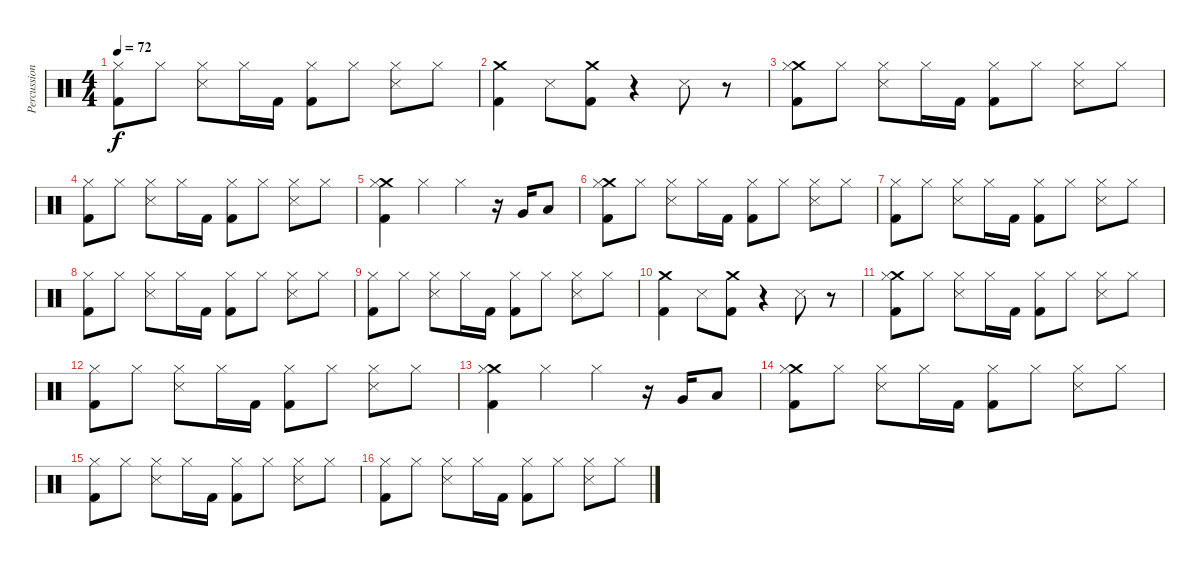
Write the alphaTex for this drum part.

\track ("Percussion" "Percussion") {instrument percussion}
\staff {score}
\articulation defaults
\ts (4 4)
\tempo 72
\clef neutral
\ks c
("Hi-Hat (closed)" "Kick (hit) 2").8{dy f} "Hi-Hat (closed)".8 ("Hi-Hat (closed)" "Metronome (hit)").8 "Hi-Hat (closed)".16 "Kick (hit) 2".16 ("Hi-Hat (closed)" "Kick (hit) 2").8 "Hi-Hat (closed)".8 ("Hi-Hat (closed)" "Metronome (hit)").8 "Hi-Hat (closed)".8 |
("Crash medium (hit)" "Kick (hit) 2").4 "Metronome (hit)".8 ("Crash medium (hit)" "Kick (hit) 2").8 r.4 "Metronome (hit)".8 r.8 |
("Crash medium (hit)" "Hi-Hat (closed)" "Kick (hit) 2").8 "Hi-Hat (closed)".8 ("Hi-Hat (closed)" "Metronome (hit)").8 "Hi-Hat (closed)".16 "Kick (hit) 2".16 ("Hi-Hat (closed)" "Kick (hit) 2").8 "Hi-Hat (closed)".8 ("Hi-Hat (closed)" "Metronome (hit)").8 "Hi-Hat (closed)".8 |
("Hi-Hat (closed)" "Kick (hit) 2").8 "Hi-Hat (closed)".8 ("Hi-Hat (closed)" "Metronome (hit)").8 "Hi-Hat (closed)".16 "Kick (hit) 2".16 ("Hi-Hat (closed)" "Kick (hit) 2").8 "Hi-Hat (closed)".8 ("Hi-Hat (closed)" "Metronome (hit)").8 "Hi-Hat (closed)".8 |
("Crash medium (hit)" "Hi-Hat (closed)" "Kick (hit) 2").4 "Hi-Hat (closed)".4 "Hi-Hat (closed)".4 r.16 "Very Low Tom (hit)".16 "Low Floor Tom (hit)".8 |
("Crash medium (hit)" "Hi-Hat (closed)" "Kick (hit) 2").8 "Hi-Hat (closed)".8 ("Hi-Hat (closed)" "Metronome (hit)").8 "Hi-Hat (closed)".16 "Kick (hit) 2".16 ("Hi-Hat (closed)" "Kick (hit) 2").8 "Hi-Hat (closed)".8 ("Hi-Hat (closed)" "Metronome (hit)").8 "Hi-Hat (closed)".8 |
("Hi-Hat (closed)" "Kick (hit) 2").8 "Hi-Hat (closed)".8 ("Hi-Hat (closed)" "Metronome (hit)").8 "Hi-Hat (closed)".16 "Kick (hit) 2".16 ("Hi-Hat (closed)" "Kick (hit) 2").8 "Hi-Hat (closed)".8 ("Hi-Hat (closed)" "Metronome (hit)").8 "Hi-Hat (closed)".8 |
("Hi-Hat (closed)" "Kick (hit) 2").8 "Hi-Hat (closed)".8 ("Hi-Hat (closed)" "Metronome (hit)").8 "Hi-Hat (closed)".16 "Kick (hit) 2".16 ("Hi-Hat (closed)" "Kick (hit) 2").8 "Hi-Hat (closed)".8 ("Hi-Hat (closed)" "Metronome (hit)").8 "Hi-Hat (closed)".8 |
("Hi-Hat (closed)" "Kick (hit) 2").8 "Hi-Hat (closed)".8 ("Hi-Hat (closed)" "Metronome (hit)").8 "Hi-Hat (closed)".16 "Kick (hit) 2".16 ("Hi-Hat (closed)" "Kick (hit) 2").8 "Hi-Hat (closed)".8 ("Hi-Hat (closed)" "Metronome (hit)").8 "Hi-Hat (closed)".8 |
("Crash medium (hit)" "Kick (hit) 2").4 "Metronome (hit)".8 ("Crash medium (hit)" "Kick (hit) 2").8 r.4 "Metronome (hit)".8 r.8 |
("Crash medium (hit)" "Hi-Hat (closed)" "Kick (hit) 2").8 "Hi-Hat (closed)".8 ("Hi-Hat (closed)" "Metronome (hit)").8 "Hi-Hat (closed)".16 "Kick (hit) 2".16 ("Hi-Hat (closed)" "Kick (hit) 2").8 "Hi-Hat (closed)".8 ("Hi-Hat (closed)" "Metronome (hit)").8 "Hi-Hat (closed)".8 |
("Hi-Hat (closed)" "Kick (hit) 2").8 "Hi-Hat (closed)".8 ("Hi-Hat (closed)" "Metronome (hit)").8 "Hi-Hat (closed)".16 "Kick (hit) 2".16 ("Hi-Hat (closed)" "Kick (hit) 2").8 "Hi-Hat (closed)".8 ("Hi-Hat (closed)" "Metronome (hit)").8 "Hi-Hat (closed)".8 |
("Crash medium (hit)" "Hi-Hat (closed)" "Kick (hit) 2").4 "Hi-Hat (closed)".4 "Hi-Hat (closed)".4 r.16 "Very Low Tom (hit)".16 "Low Floor Tom (hit)".8 |
("Crash medium (hit)" "Hi-Hat (closed)" "Kick (hit) 2").8 "Hi-Hat (closed)".8 ("Hi-Hat (closed)" "Metronome (hit)").8 "Hi-Hat (closed)".16 "Kick (hit) 2".16 ("Hi-Hat (closed)" "Kick (hit) 2").8 "Hi-Hat (closed)".8 ("Hi-Hat (closed)" "Metronome (hit)").8 "Hi-Hat (closed)".8 |
("Hi-Hat (closed)" "Kick (hit) 2").8 "Hi-Hat (closed)".8 ("Hi-Hat (closed)" "Metronome (hit)").8 "Hi-Hat (closed)".16 "Kick (hit) 2".16 ("Hi-Hat (closed)" "Kick (hit) 2").8 "Hi-Hat (closed)".8 ("Hi-Hat (closed)" "Metronome (hit)").8 "Hi-Hat (closed)".8 |
("Hi-Hat (closed)" "Kick (hit) 2").8 "Hi-Hat (closed)".8 ("Hi-Hat (closed)" "Metronome (hit)").8 "Hi-Hat (closed)".16 "Kick (hit) 2".16 ("Hi-Hat (closed)" "Kick (hit) 2").8 "Hi-Hat (closed)".8 ("Hi-Hat (closed)" "Metronome (hit)").8 "Hi-Hat (closed)".8
